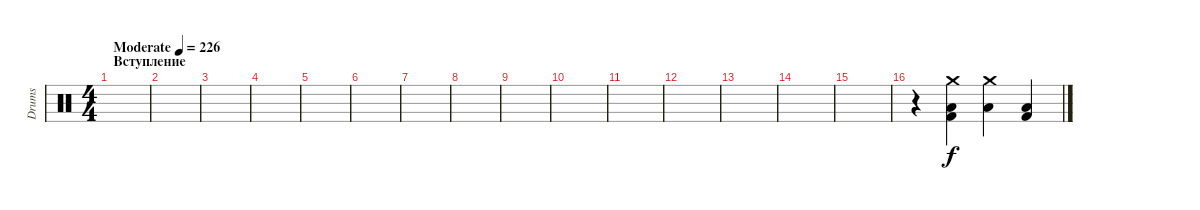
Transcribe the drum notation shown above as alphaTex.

\track ("Drums" "Drums") {instrument percussion}
\staff
\articulation defaults
\ts (4 4)
\section ("" "Вступление")
\tempo (226 "Moderate")
\clef neutral
\ks c
|
|
|
|
|
|
|
|
|
|
|
|
|
|
|
r.4 ("Crash medium (hit)" "Low Tom (hit)" "Kick (hit) 2").4 ("Crash medium (hit)" "Low Tom (hit)").4 ("Low Tom (hit)" "Kick (hit) 2").4
